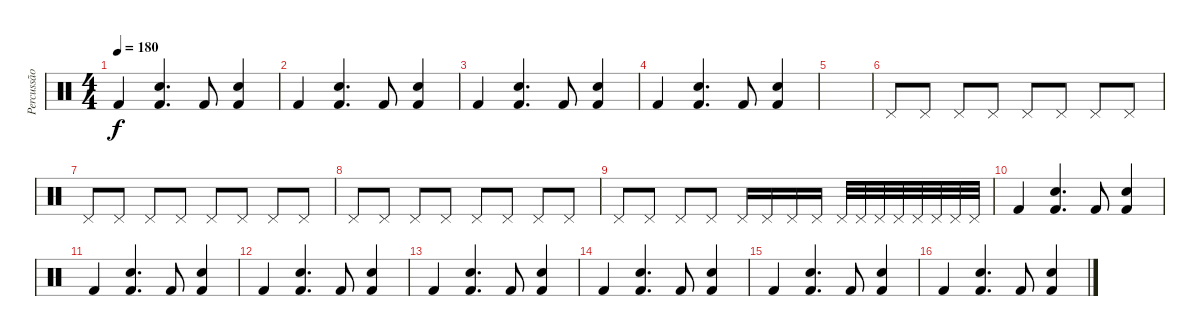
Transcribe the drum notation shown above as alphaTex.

\track ("Percussão" "Percussão") {instrument percussion}
\staff {score}
\articulation defaults
\ts (4 4)
\tempo 180
\clef neutral
\ks c "Kick (hit) 2".4{dy f}
("Kick (hit) 2" "Snare (hit) 2").4{d} "Kick (hit) 2".8 ("Kick (hit) 2" "Snare (hit) 2").4 |
"Kick (hit) 2".4 ("Kick (hit) 2" "Snare (hit) 2").4{d} "Kick (hit) 2".8 ("Kick (hit) 2" "Snare (hit) 2").4 |
"Kick (hit) 2".4 ("Kick (hit) 2" "Snare (hit) 2").4{d} "Kick (hit) 2".8 ("Kick (hit) 2" "Snare (hit) 2").4 |
"Kick (hit) 2".4 ("Kick (hit) 2" "Snare (hit) 2").4{d} "Kick (hit) 2".8 ("Kick (hit) 2" "Snare (hit) 2").4 |
|
"Pedal Hi-Hat (hit)".8 "Pedal Hi-Hat (hit)".8 "Pedal Hi-Hat (hit)".8 "Pedal Hi-Hat (hit)".8 "Pedal Hi-Hat (hit)".8 "Pedal Hi-Hat (hit)".8 "Pedal Hi-Hat (hit)".8 "Pedal Hi-Hat (hit)".8 |
"Pedal Hi-Hat (hit)".8 "Pedal Hi-Hat (hit)".8 "Pedal Hi-Hat (hit)".8 "Pedal Hi-Hat (hit)".8 "Pedal Hi-Hat (hit)".8 "Pedal Hi-Hat (hit)".8 "Pedal Hi-Hat (hit)".8 "Pedal Hi-Hat (hit)".8 |
"Pedal Hi-Hat (hit)".8 "Pedal Hi-Hat (hit)".8 "Pedal Hi-Hat (hit)".8 "Pedal Hi-Hat (hit)".8 "Pedal Hi-Hat (hit)".8 "Pedal Hi-Hat (hit)".8 "Pedal Hi-Hat (hit)".8 "Pedal Hi-Hat (hit)".8 |
"Pedal Hi-Hat (hit)".8 "Pedal Hi-Hat (hit)".8 "Pedal Hi-Hat (hit)".8 "Pedal Hi-Hat (hit)".8 "Pedal Hi-Hat (hit)".16 "Pedal Hi-Hat (hit)".16 "Pedal Hi-Hat (hit)".16 "Pedal Hi-Hat (hit)".16 "Pedal Hi-Hat (hit)".32 "Pedal Hi-Hat (hit)".32 "Pedal Hi-Hat (hit)".32 "Pedal Hi-Hat (hit)".32 "Pedal Hi-Hat (hit)".32 "Pedal Hi-Hat (hit)".32 "Pedal Hi-Hat (hit)".32 "Pedal Hi-Hat (hit)".32 |
"Kick (hit) 2".4 ("Kick (hit) 2" "Snare (hit) 2").4{d} "Kick (hit) 2".8 ("Kick (hit) 2" "Snare (hit) 2").4 |
"Kick (hit) 2".4 ("Kick (hit) 2" "Snare (hit) 2").4{d} "Kick (hit) 2".8 ("Kick (hit) 2" "Snare (hit) 2").4 |
"Kick (hit) 2".4 ("Kick (hit) 2" "Snare (hit) 2").4{d} "Kick (hit) 2".8 ("Kick (hit) 2" "Snare (hit) 2").4 |
"Kick (hit) 2".4 ("Kick (hit) 2" "Snare (hit) 2").4{d} "Kick (hit) 2".8 ("Kick (hit) 2" "Snare (hit) 2").4 |
"Kick (hit) 2".4 ("Kick (hit) 2" "Snare (hit) 2").4{d} "Kick (hit) 2".8 ("Kick (hit) 2" "Snare (hit) 2").4 |
"Kick (hit) 2".4 ("Kick (hit) 2" "Snare (hit) 2").4{d} "Kick (hit) 2".8 ("Kick (hit) 2" "Snare (hit) 2").4 |
"Kick (hit) 2".4 ("Kick (hit) 2" "Snare (hit) 2").4{d} "Kick (hit) 2".8 ("Kick (hit) 2" "Snare (hit) 2").4
